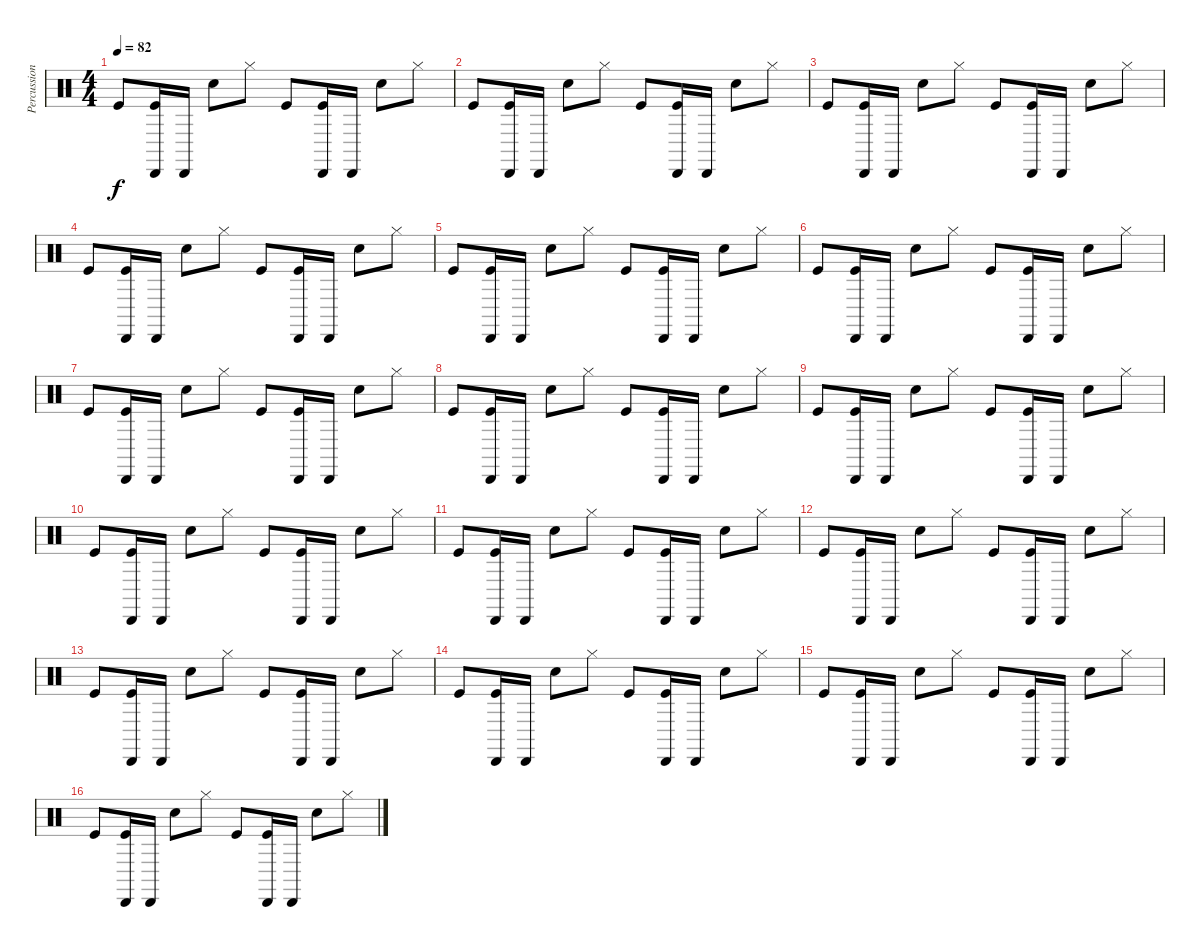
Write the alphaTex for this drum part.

\track ("Percussions" "Percussion") {instrument percussion}
\staff {score}
\articulation defaults
\ts (4 4)
\tempo 82
\clef neutral
\ks c "Kick (hit)".8{dy f}
("Cabasa (hit)" "Kick (hit)").16 "Cabasa (hit)".16 "Electric Snare (hit)".8 "Hi-Hat (closed)".8 "Kick (hit)".8 ("Cabasa (hit)" "Kick (hit)").16 "Cabasa (hit)".16 "Electric Snare (hit)".8 "Hi-Hat (closed)".8 |
"Kick (hit)".8 ("Cabasa (hit)" "Kick (hit)").16 "Cabasa (hit)".16 "Electric Snare (hit)".8 "Hi-Hat (closed)".8 "Kick (hit)".8 ("Cabasa (hit)" "Kick (hit)").16 "Cabasa (hit)".16 "Electric Snare (hit)".8 "Hi-Hat (closed)".8 |
"Kick (hit)".8 ("Cabasa (hit)" "Kick (hit)").16 "Cabasa (hit)".16 "Electric Snare (hit)".8 "Hi-Hat (closed)".8 "Kick (hit)".8 ("Cabasa (hit)" "Kick (hit)").16 "Cabasa (hit)".16 "Electric Snare (hit)".8 "Hi-Hat (closed)".8 |
"Kick (hit)".8 ("Cabasa (hit)" "Kick (hit)").16 "Cabasa (hit)".16 "Electric Snare (hit)".8 "Hi-Hat (closed)".8 "Kick (hit)".8 ("Cabasa (hit)" "Kick (hit)").16 "Cabasa (hit)".16 "Electric Snare (hit)".8 "Hi-Hat (closed)".8 |
"Kick (hit)".8 ("Cabasa (hit)" "Kick (hit)").16 "Cabasa (hit)".16 "Electric Snare (hit)".8 "Hi-Hat (closed)".8 "Kick (hit)".8 ("Cabasa (hit)" "Kick (hit)").16 "Cabasa (hit)".16 "Electric Snare (hit)".8 "Hi-Hat (closed)".8 |
"Kick (hit)".8 ("Cabasa (hit)" "Kick (hit)").16 "Cabasa (hit)".16 "Electric Snare (hit)".8 "Hi-Hat (closed)".8 "Kick (hit)".8 ("Cabasa (hit)" "Kick (hit)").16 "Cabasa (hit)".16 "Electric Snare (hit)".8 "Hi-Hat (closed)".8 |
"Kick (hit)".8 ("Cabasa (hit)" "Kick (hit)").16 "Cabasa (hit)".16 "Electric Snare (hit)".8 "Hi-Hat (closed)".8 "Kick (hit)".8 ("Cabasa (hit)" "Kick (hit)").16 "Cabasa (hit)".16 "Electric Snare (hit)".8 "Hi-Hat (closed)".8 |
"Kick (hit)".8 ("Cabasa (hit)" "Kick (hit)").16 "Cabasa (hit)".16 "Electric Snare (hit)".8 "Hi-Hat (closed)".8 "Kick (hit)".8 ("Cabasa (hit)" "Kick (hit)").16 "Cabasa (hit)".16 "Electric Snare (hit)".8 "Hi-Hat (closed)".8 |
"Kick (hit)".8 ("Cabasa (hit)" "Kick (hit)").16 "Cabasa (hit)".16 "Electric Snare (hit)".8 "Hi-Hat (closed)".8 "Kick (hit)".8 ("Cabasa (hit)" "Kick (hit)").16 "Cabasa (hit)".16 "Electric Snare (hit)".8 "Hi-Hat (closed)".8 |
"Kick (hit)".8 ("Cabasa (hit)" "Kick (hit)").16 "Cabasa (hit)".16 "Electric Snare (hit)".8 "Hi-Hat (closed)".8 "Kick (hit)".8 ("Cabasa (hit)" "Kick (hit)").16 "Cabasa (hit)".16 "Electric Snare (hit)".8 "Hi-Hat (closed)".8 |
"Kick (hit)".8 ("Cabasa (hit)" "Kick (hit)").16 "Cabasa (hit)".16 "Electric Snare (hit)".8 "Hi-Hat (closed)".8 "Kick (hit)".8 ("Cabasa (hit)" "Kick (hit)").16 "Cabasa (hit)".16 "Electric Snare (hit)".8 "Hi-Hat (closed)".8 |
"Kick (hit)".8 ("Cabasa (hit)" "Kick (hit)").16 "Cabasa (hit)".16 "Electric Snare (hit)".8 "Hi-Hat (closed)".8 "Kick (hit)".8 ("Cabasa (hit)" "Kick (hit)").16 "Cabasa (hit)".16 "Electric Snare (hit)".8 "Hi-Hat (closed)".8 |
"Kick (hit)".8 ("Cabasa (hit)" "Kick (hit)").16 "Cabasa (hit)".16 "Electric Snare (hit)".8 "Hi-Hat (closed)".8 "Kick (hit)".8 ("Cabasa (hit)" "Kick (hit)").16 "Cabasa (hit)".16 "Electric Snare (hit)".8 "Hi-Hat (closed)".8 |
"Kick (hit)".8 ("Cabasa (hit)" "Kick (hit)").16 "Cabasa (hit)".16 "Electric Snare (hit)".8 "Hi-Hat (closed)".8 "Kick (hit)".8 ("Cabasa (hit)" "Kick (hit)").16 "Cabasa (hit)".16 "Electric Snare (hit)".8 "Hi-Hat (closed)".8 |
"Kick (hit)".8 ("Cabasa (hit)" "Kick (hit)").16 "Cabasa (hit)".16 "Electric Snare (hit)".8 "Hi-Hat (closed)".8 "Kick (hit)".8 ("Cabasa (hit)" "Kick (hit)").16 "Cabasa (hit)".16 "Electric Snare (hit)".8 "Hi-Hat (closed)".8 |
"Kick (hit)".8 ("Cabasa (hit)" "Kick (hit)").16 "Cabasa (hit)".16 "Electric Snare (hit)".8 "Hi-Hat (closed)".8 "Kick (hit)".8 ("Cabasa (hit)" "Kick (hit)").16 "Cabasa (hit)".16 "Electric Snare (hit)".8 "Hi-Hat (closed)".8
